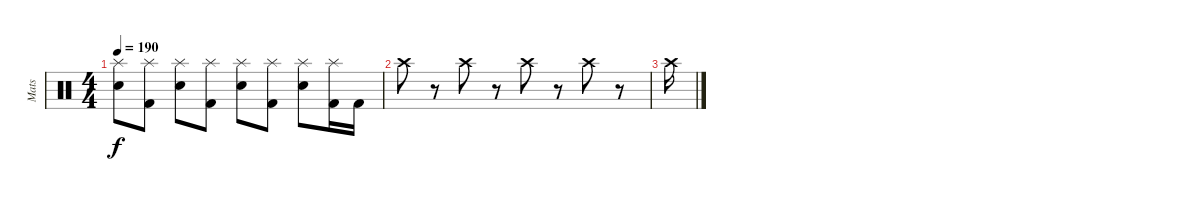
\track ("Mats" "Mats") {instrument percussion}
\staff {score}
\articulation defaults
\ts (4 4)
\tempo 190
\clef neutral
\ks c
("Splash (hit)" "Snare (hit) 2").8{dy f} ("Splash (hit)" "Kick (hit) 2").8 ("Splash (hit)" "Snare (hit) 2").8 ("Splash (hit)" "Kick (hit) 2").8 ("Splash (hit)" "Snare (hit) 2").8 ("Splash (hit)" "Kick (hit) 2").8 ("Splash (hit)" "Snare (hit) 2").8 ("Splash (hit)" "Kick (hit) 2").16 "Kick (hit) 2".16 |
"Crash high (hit)".8 r.8 "Crash high (hit)".8 r.8 "Crash high (hit)".8 r.8 "Crash high (hit)".8 r.8 |
"Crash high (hit)".16
